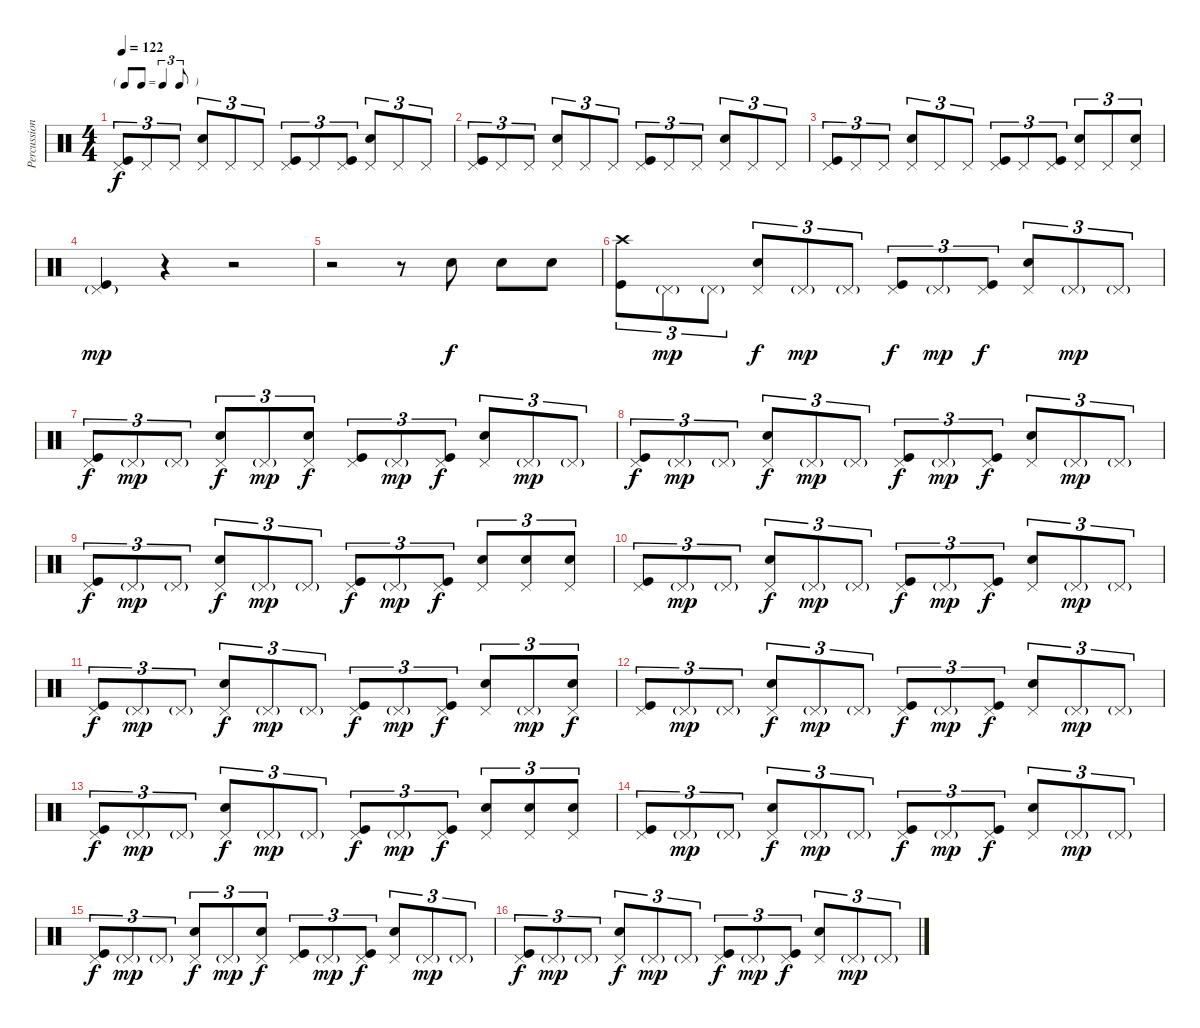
\track ("Percussion" "Percussion") {instrument percussion}
\staff {score}
\articulation defaults
\ts (4 4)
\tf triplet8th
\tempo 122
\clef neutral
\ks c
("Pedal Hi-Hat (hit)" "Kick (hit)").8{tu (3 2) dy f} "Pedal Hi-Hat (hit)".8{tu (3 2)} "Pedal Hi-Hat (hit)".8{tu (3 2)} ("Pedal Hi-Hat (hit)" "Snare (hit) 2").8{tu (3 2)} "Pedal Hi-Hat (hit)".8{tu (3 2)} "Pedal Hi-Hat (hit)".8{tu (3 2)} ("Pedal Hi-Hat (hit)" "Kick (hit)").8{tu (3 2)} "Pedal Hi-Hat (hit)".8{tu (3 2)} ("Pedal Hi-Hat (hit)" "Kick (hit)").8{tu (3 2)} ("Pedal Hi-Hat (hit)" "Snare (hit) 2").8{tu (3 2)} "Pedal Hi-Hat (hit)".8{tu (3 2)} "Pedal Hi-Hat (hit)".8{tu (3 2)} |
("Pedal Hi-Hat (hit)" "Kick (hit)").8{tu (3 2)} "Pedal Hi-Hat (hit)".8{tu (3 2)} "Pedal Hi-Hat (hit)".8{tu (3 2)} ("Pedal Hi-Hat (hit)" "Snare (hit) 2").8{tu (3 2)} "Pedal Hi-Hat (hit)".8{tu (3 2)} "Pedal Hi-Hat (hit)".8{tu (3 2)} ("Pedal Hi-Hat (hit)" "Kick (hit)").8{tu (3 2)} "Pedal Hi-Hat (hit)".8{tu (3 2)} "Pedal Hi-Hat (hit)".8{tu (3 2)} ("Pedal Hi-Hat (hit)" "Snare (hit) 2").8{tu (3 2)} "Pedal Hi-Hat (hit)".8{tu (3 2)} "Pedal Hi-Hat (hit)".8{tu (3 2)} |
("Pedal Hi-Hat (hit)" "Kick (hit)").8{tu (3 2)} "Pedal Hi-Hat (hit)".8{tu (3 2)} "Pedal Hi-Hat (hit)".8{tu (3 2)} ("Pedal Hi-Hat (hit)" "Snare (hit) 2").8{tu (3 2)} "Pedal Hi-Hat (hit)".8{tu (3 2)} "Pedal Hi-Hat (hit)".8{tu (3 2)} ("Pedal Hi-Hat (hit)" "Kick (hit)").8{tu (3 2)} "Pedal Hi-Hat (hit)".8{tu (3 2)} ("Pedal Hi-Hat (hit)" "Kick (hit)").8{tu (3 2)} ("Pedal Hi-Hat (hit)" "Snare (hit) 2").8{tu (3 2)} "Pedal Hi-Hat (hit)".8{tu (3 2)} ("Pedal Hi-Hat (hit)" "Snare (hit) 2").8{tu (3 2)} |
("Pedal Hi-Hat (hit)"{g} "Kick (hit)").4{dy mp} r.4 r.2 |
r.2 r.8 "Snare (hit) 2".8{dy f} "Snare (hit) 2".8 "Snare (hit) 2".8 |
("Crash high (hit)" "Kick (hit)").8{tu (3 2)} "Pedal Hi-Hat (hit)"{g}.8{tu (3 2) dy mp} "Pedal Hi-Hat (hit)"{g}.8{tu (3 2)} ("Pedal Hi-Hat (hit)" "Snare (hit) 2").8{tu (3 2) dy f} "Pedal Hi-Hat (hit)"{g}.8{tu (3 2) dy mp} "Pedal Hi-Hat (hit)"{g}.8{tu (3 2)} ("Pedal Hi-Hat (hit)" "Kick (hit)").8{tu (3 2) dy f} "Pedal Hi-Hat (hit)"{g}.8{tu (3 2) dy mp} ("Pedal Hi-Hat (hit)" "Kick (hit)").8{tu (3 2) dy f} ("Pedal Hi-Hat (hit)" "Snare (hit) 2").8{tu (3 2)} "Pedal Hi-Hat (hit)"{g}.8{tu (3 2) dy mp} "Pedal Hi-Hat (hit)"{g}.8{tu (3 2)} |
("Pedal Hi-Hat (hit)" "Kick (hit)").8{tu (3 2) dy f} "Pedal Hi-Hat (hit)"{g}.8{tu (3 2) dy mp} "Pedal Hi-Hat (hit)"{g}.8{tu (3 2)} ("Pedal Hi-Hat (hit)" "Snare (hit) 2").8{tu (3 2) dy f} "Pedal Hi-Hat (hit)"{g}.8{tu (3 2) dy mp} ("Pedal Hi-Hat (hit)" "Snare (hit) 2").8{tu (3 2) dy f} ("Pedal Hi-Hat (hit)" "Kick (hit)").8{tu (3 2)} "Pedal Hi-Hat (hit)"{g}.8{tu (3 2) dy mp} ("Pedal Hi-Hat (hit)" "Kick (hit)").8{tu (3 2) dy f} ("Pedal Hi-Hat (hit)" "Snare (hit) 2").8{tu (3 2)} "Pedal Hi-Hat (hit)"{g}.8{tu (3 2) dy mp} "Pedal Hi-Hat (hit)"{g}.8{tu (3 2)} |
("Pedal Hi-Hat (hit)" "Kick (hit)").8{tu (3 2) dy f} "Pedal Hi-Hat (hit)"{g}.8{tu (3 2) dy mp} "Pedal Hi-Hat (hit)"{g}.8{tu (3 2)} ("Pedal Hi-Hat (hit)" "Snare (hit) 2").8{tu (3 2) dy f} "Pedal Hi-Hat (hit)"{g}.8{tu (3 2) dy mp} "Pedal Hi-Hat (hit)"{g}.8{tu (3 2)} ("Pedal Hi-Hat (hit)" "Kick (hit)").8{tu (3 2) dy f} "Pedal Hi-Hat (hit)"{g}.8{tu (3 2) dy mp} ("Pedal Hi-Hat (hit)" "Kick (hit)").8{tu (3 2) dy f} ("Pedal Hi-Hat (hit)" "Snare (hit) 2").8{tu (3 2)} "Pedal Hi-Hat (hit)"{g}.8{tu (3 2) dy mp} "Pedal Hi-Hat (hit)"{g}.8{tu (3 2)} |
("Pedal Hi-Hat (hit)" "Kick (hit)").8{tu (3 2) dy f} "Pedal Hi-Hat (hit)"{g}.8{tu (3 2) dy mp} "Pedal Hi-Hat (hit)"{g}.8{tu (3 2)} ("Pedal Hi-Hat (hit)" "Snare (hit) 2").8{tu (3 2) dy f} "Pedal Hi-Hat (hit)"{g}.8{tu (3 2) dy mp} "Pedal Hi-Hat (hit)"{g}.8{tu (3 2)} ("Pedal Hi-Hat (hit)" "Kick (hit)").8{tu (3 2) dy f} "Pedal Hi-Hat (hit)"{g}.8{tu (3 2) dy mp} ("Pedal Hi-Hat (hit)" "Kick (hit)").8{tu (3 2) dy f} ("Pedal Hi-Hat (hit)" "Snare (hit) 2").8{tu (3 2)} ("Pedal Hi-Hat (hit)" "Snare (hit) 2").8{tu (3 2)} ("Pedal Hi-Hat (hit)" "Snare (hit) 2").8{tu (3 2)} |
("Pedal Hi-Hat (hit)" "Kick (hit)").8{tu (3 2)} "Pedal Hi-Hat (hit)"{g}.8{tu (3 2) dy mp} "Pedal Hi-Hat (hit)"{g}.8{tu (3 2)} ("Pedal Hi-Hat (hit)" "Snare (hit) 2").8{tu (3 2) dy f} "Pedal Hi-Hat (hit)"{g}.8{tu (3 2) dy mp} "Pedal Hi-Hat (hit)"{g}.8{tu (3 2)} ("Pedal Hi-Hat (hit)" "Kick (hit)").8{tu (3 2) dy f} "Pedal Hi-Hat (hit)"{g}.8{tu (3 2) dy mp} ("Pedal Hi-Hat (hit)" "Kick (hit)").8{tu (3 2) dy f} ("Pedal Hi-Hat (hit)" "Snare (hit) 2").8{tu (3 2)} "Pedal Hi-Hat (hit)"{g}.8{tu (3 2) dy mp} "Pedal Hi-Hat (hit)"{g}.8{tu (3 2)} |
("Pedal Hi-Hat (hit)" "Kick (hit)").8{tu (3 2) dy f} "Pedal Hi-Hat (hit)"{g}.8{tu (3 2) dy mp} "Pedal Hi-Hat (hit)"{g}.8{tu (3 2)} ("Pedal Hi-Hat (hit)" "Snare (hit) 2").8{tu (3 2) dy f} "Pedal Hi-Hat (hit)"{g}.8{tu (3 2) dy mp} "Pedal Hi-Hat (hit)"{g}.8{tu (3 2)} ("Pedal Hi-Hat (hit)" "Kick (hit)").8{tu (3 2) dy f} "Pedal Hi-Hat (hit)"{g}.8{tu (3 2) dy mp} ("Pedal Hi-Hat (hit)" "Kick (hit)").8{tu (3 2) dy f} ("Pedal Hi-Hat (hit)" "Snare (hit) 2").8{tu (3 2)} "Pedal Hi-Hat (hit)"{g}.8{tu (3 2) dy mp} ("Pedal Hi-Hat (hit)" "Snare (hit) 2").8{tu (3 2) dy f} |
("Pedal Hi-Hat (hit)" "Kick (hit)").8{tu (3 2)} "Pedal Hi-Hat (hit)"{g}.8{tu (3 2) dy mp} "Pedal Hi-Hat (hit)"{g}.8{tu (3 2)} ("Pedal Hi-Hat (hit)" "Snare (hit) 2").8{tu (3 2) dy f} "Pedal Hi-Hat (hit)"{g}.8{tu (3 2) dy mp} "Pedal Hi-Hat (hit)"{g}.8{tu (3 2)} ("Pedal Hi-Hat (hit)" "Kick (hit)").8{tu (3 2) dy f} "Pedal Hi-Hat (hit)"{g}.8{tu (3 2) dy mp} ("Pedal Hi-Hat (hit)" "Kick (hit)").8{tu (3 2) dy f} ("Pedal Hi-Hat (hit)" "Snare (hit) 2").8{tu (3 2)} "Pedal Hi-Hat (hit)"{g}.8{tu (3 2) dy mp} "Pedal Hi-Hat (hit)"{g}.8{tu (3 2)} |
("Pedal Hi-Hat (hit)" "Kick (hit)").8{tu (3 2) dy f} "Pedal Hi-Hat (hit)"{g}.8{tu (3 2) dy mp} "Pedal Hi-Hat (hit)"{g}.8{tu (3 2)} ("Pedal Hi-Hat (hit)" "Snare (hit) 2").8{tu (3 2) dy f} "Pedal Hi-Hat (hit)"{g}.8{tu (3 2) dy mp} "Pedal Hi-Hat (hit)"{g}.8{tu (3 2)} ("Pedal Hi-Hat (hit)" "Kick (hit)").8{tu (3 2) dy f} "Pedal Hi-Hat (hit)"{g}.8{tu (3 2) dy mp} ("Pedal Hi-Hat (hit)" "Kick (hit)").8{tu (3 2) dy f} ("Pedal Hi-Hat (hit)" "Snare (hit) 2").8{tu (3 2)} ("Pedal Hi-Hat (hit)" "Snare (hit) 2").8{tu (3 2)} ("Pedal Hi-Hat (hit)" "Snare (hit) 2").8{tu (3 2)} |
("Pedal Hi-Hat (hit)" "Kick (hit)").8{tu (3 2)} "Pedal Hi-Hat (hit)"{g}.8{tu (3 2) dy mp} "Pedal Hi-Hat (hit)"{g}.8{tu (3 2)} ("Pedal Hi-Hat (hit)" "Snare (hit) 2").8{tu (3 2) dy f} "Pedal Hi-Hat (hit)"{g}.8{tu (3 2) dy mp} "Pedal Hi-Hat (hit)"{g}.8{tu (3 2)} ("Pedal Hi-Hat (hit)" "Kick (hit)").8{tu (3 2) dy f} "Pedal Hi-Hat (hit)"{g}.8{tu (3 2) dy mp} ("Pedal Hi-Hat (hit)" "Kick (hit)").8{tu (3 2) dy f} ("Pedal Hi-Hat (hit)" "Snare (hit) 2").8{tu (3 2)} "Pedal Hi-Hat (hit)"{g}.8{tu (3 2) dy mp} "Pedal Hi-Hat (hit)"{g}.8{tu (3 2)} |
("Pedal Hi-Hat (hit)" "Kick (hit)").8{tu (3 2) dy f} "Pedal Hi-Hat (hit)"{g}.8{tu (3 2) dy mp} "Pedal Hi-Hat (hit)"{g}.8{tu (3 2)} ("Pedal Hi-Hat (hit)" "Snare (hit) 2").8{tu (3 2) dy f} "Pedal Hi-Hat (hit)"{g}.8{tu (3 2) dy mp} ("Pedal Hi-Hat (hit)" "Snare (hit) 2").8{tu (3 2) dy f} ("Pedal Hi-Hat (hit)" "Kick (hit)").8{tu (3 2)} "Pedal Hi-Hat (hit)"{g}.8{tu (3 2) dy mp} ("Pedal Hi-Hat (hit)" "Kick (hit)").8{tu (3 2) dy f} ("Pedal Hi-Hat (hit)" "Snare (hit) 2").8{tu (3 2)} "Pedal Hi-Hat (hit)"{g}.8{tu (3 2) dy mp} "Pedal Hi-Hat (hit)"{g}.8{tu (3 2)} |
("Pedal Hi-Hat (hit)" "Kick (hit)").8{tu (3 2) dy f} "Pedal Hi-Hat (hit)"{g}.8{tu (3 2) dy mp} "Pedal Hi-Hat (hit)"{g}.8{tu (3 2)} ("Pedal Hi-Hat (hit)" "Snare (hit) 2").8{tu (3 2) dy f} "Pedal Hi-Hat (hit)"{g}.8{tu (3 2) dy mp} "Pedal Hi-Hat (hit)"{g}.8{tu (3 2)} ("Pedal Hi-Hat (hit)" "Kick (hit)").8{tu (3 2) dy f} "Pedal Hi-Hat (hit)"{g}.8{tu (3 2) dy mp} ("Pedal Hi-Hat (hit)" "Kick (hit)").8{tu (3 2) dy f} ("Pedal Hi-Hat (hit)" "Snare (hit) 2").8{tu (3 2)} "Pedal Hi-Hat (hit)"{g}.8{tu (3 2) dy mp} "Pedal Hi-Hat (hit)"{g}.8{tu (3 2)}
